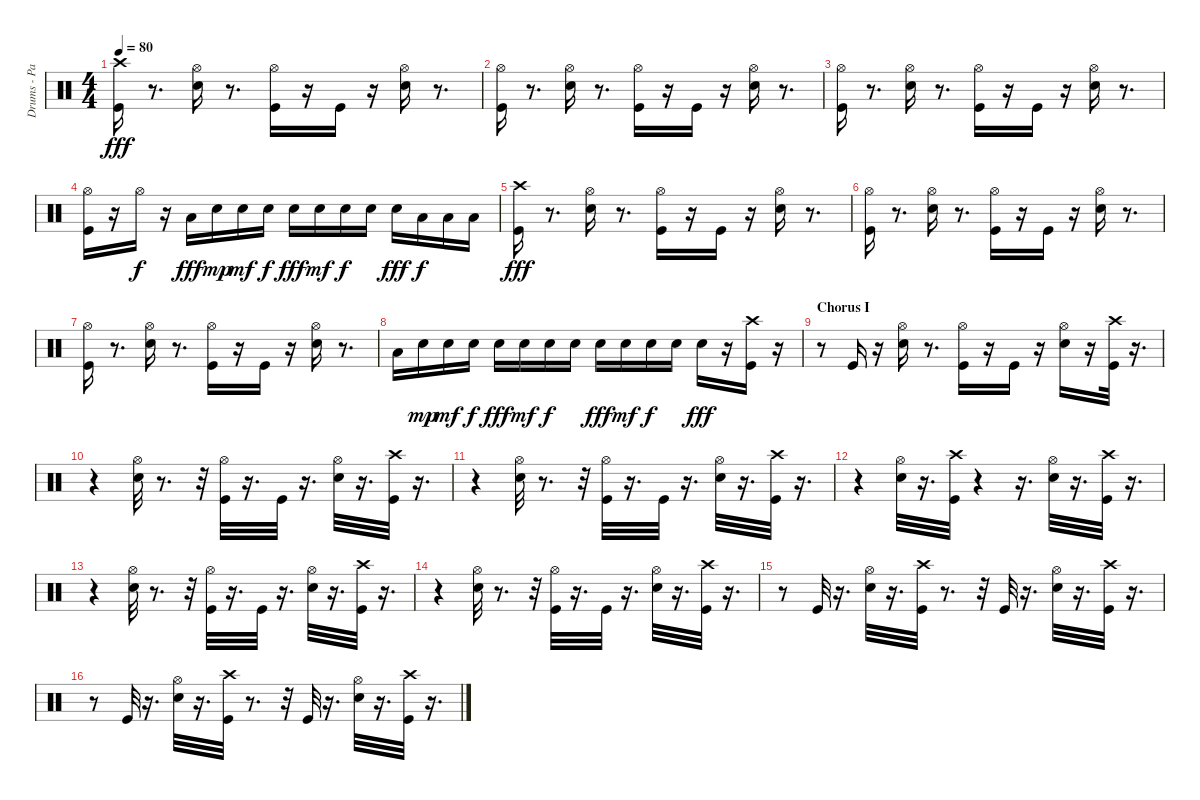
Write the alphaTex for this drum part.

\track ("Drums - Paice" "Drums - Pa") {instrument percussion}
\staff {score}
\articulation defaults
\ts (4 4)
\tempo 80
\clef neutral
\ks c
("Crash high (hit)" "Kick (hit)").16{dy fff} r.8{d} ("Snare (hit) 2" "Hi-Hat (open)").16 r.8{d} ("Hi-Hat (open)" "Kick (hit)").16 r.16 "Kick (hit)".16 r.16 ("Hi-Hat (open)" "Snare (hit) 2").16 r.8{d} |
("Kick (hit)" "Hi-Hat (open)").16 r.8{d} ("Hi-Hat (open)" "Snare (hit) 2").16 r.8{d} ("Hi-Hat (open)" "Kick (hit)").16 r.16 "Kick (hit)".16 r.16 ("Hi-Hat (open)" "Snare (hit) 2").16 r.8{d} |
("Hi-Hat (open)" "Kick (hit)").16 r.8{d} ("Hi-Hat (open)" "Snare (hit) 2").16 r.8{d} ("Kick (hit)" "Hi-Hat (open)").16 r.16 "Kick (hit)".16 r.16 ("Snare (hit) 2" "Hi-Hat (open)").16 r.8{d} |
("Hi-Hat (open)" "Kick (hit)").16 r.16 "Hi-Hat (open)".16{dy f} r.16 "Low Tom (hit)".16{dy fff} "Snare (hit) 2".16{dy mp} "Snare (hit) 2".16{dy mf} "Snare (hit) 2".16{dy f} "Snare (hit) 2".16{dy fff} "Snare (hit) 2".16{dy mf} "Snare (hit) 2".16{dy f} "Snare (hit) 2".16 "Snare (hit) 2".16{dy fff} "Low Tom (hit)".16{dy f} "Low Tom (hit)".16 "Low Tom (hit)".16 |
("Crash high (hit)" "Kick (hit)").16{dy fff} r.8{d} ("Snare (hit) 2" "Hi-Hat (open)").16 r.8{d} ("Hi-Hat (open)" "Kick (hit)").16 r.16 "Kick (hit)".16 r.16 ("Snare (hit) 2" "Hi-Hat (open)").16 r.8{d} |
("Kick (hit)" "Hi-Hat (open)").16 r.8{d} ("Snare (hit) 2" "Hi-Hat (open)").16 r.8{d} ("Hi-Hat (open)" "Kick (hit)").16 r.16 "Kick (hit)".16 r.16 ("Hi-Hat (open)" "Snare (hit) 2").16 r.8{d} |
("Kick (hit)" "Hi-Hat (open)").16 r.8{d} ("Snare (hit) 2" "Hi-Hat (open)").16 r.8{d} ("Hi-Hat (open)" "Kick (hit)").16 r.16 "Kick (hit)".16 r.16 ("Hi-Hat (open)" "Snare (hit) 2").16 r.8{d} |
"Low Tom (hit)".16 "Snare (hit) 2".16{dy mp} "Snare (hit) 2".16{dy mf} "Snare (hit) 2".16{dy f} "Snare (hit) 2".16{dy fff} "Snare (hit) 2".16{dy mf} "Snare (hit) 2".16{dy f} "Snare (hit) 2".16 "Snare (hit) 2".16{dy fff} "Snare (hit) 2".16{dy mf} "Snare (hit) 2".16{dy f} "Snare (hit) 2".16 "Snare (hit) 2".16{dy fff} r.16 ("Kick (hit)" "Crash high (hit)").16 r.16 |
\section ("" "Chorus I")
r.8 "Kick (hit)".16 r.16 ("Hi-Hat (open)" "Snare (hit) 2").16 r.8{d} ("Hi-Hat (open)" "Kick (hit)").16 r.16 "Kick (hit)".16 r.16 ("Hi-Hat (open)" "Snare (hit) 2").16 r.16 ("Kick (hit)" "Crash high (hit)").32 r.16{d} |
r.4 ("Hi-Hat (open)" "Snare (hit) 2").32 r.8{d} r.32 ("Hi-Hat (open)" "Kick (hit)").32 r.16{d} "Kick (hit)".32 r.16{d} ("Hi-Hat (open)" "Snare (hit) 2").32 r.16{d} ("Kick (hit)" "Crash high (hit)").32 r.16{d} |
r.4 ("Hi-Hat (open)" "Snare (hit) 2").32 r.8{d} r.32 ("Hi-Hat (open)" "Kick (hit)").32 r.16{d} "Kick (hit)".32 r.16{d} ("Hi-Hat (open)" "Snare (hit) 2").32 r.16{d} ("Kick (hit)" "Crash high (hit)").32 r.16{d} |
r.4 ("Hi-Hat (open)" "Snare (hit) 2").32 r.16{d} ("Kick (hit)" "Crash high (hit)").32 r.4 r.16{d} ("Hi-Hat (open)" "Snare (hit) 2").32 r.16{d} ("Kick (hit)" "Crash high (hit)").32 r.16{d} |
r.4 ("Snare (hit) 2" "Hi-Hat (open)").32 r.8{d} r.32 ("Kick (hit)" "Hi-Hat (open)").32 r.16{d} "Kick (hit)".32 r.16{d} ("Hi-Hat (open)" "Snare (hit) 2").32 r.16{d} ("Crash high (hit)" "Kick (hit)").32 r.16{d} |
r.4 ("Snare (hit) 2" "Hi-Hat (open)").32 r.8{d} r.32 ("Kick (hit)" "Hi-Hat (open)").32 r.16{d} "Kick (hit)".32 r.16{d} ("Snare (hit) 2" "Hi-Hat (open)").32 r.16{d} ("Crash high (hit)" "Kick (hit)").32 r.16{d} |
r.8 "Kick (hit)".32 r.16{d} ("Hi-Hat (open)" "Snare (hit) 2").32 r.16{d} ("Kick (hit)" "Crash high (hit)").32 r.8{d} r.32 "Kick (hit)".32 r.16{d} ("Hi-Hat (open)" "Snare (hit) 2").32 r.16{d} ("Crash high (hit)" "Kick (hit)").32 r.16{d} |
r.8 "Kick (hit)".32 r.16{d} ("Snare (hit) 2" "Hi-Hat (open)").32 r.16{d} ("Kick (hit)" "Crash high (hit)").32 r.8{d} r.32 "Kick (hit)".32 r.16{d} ("Hi-Hat (open)" "Snare (hit) 2").32 r.16{d} ("Crash high (hit)" "Kick (hit)").32 r.16{d}
